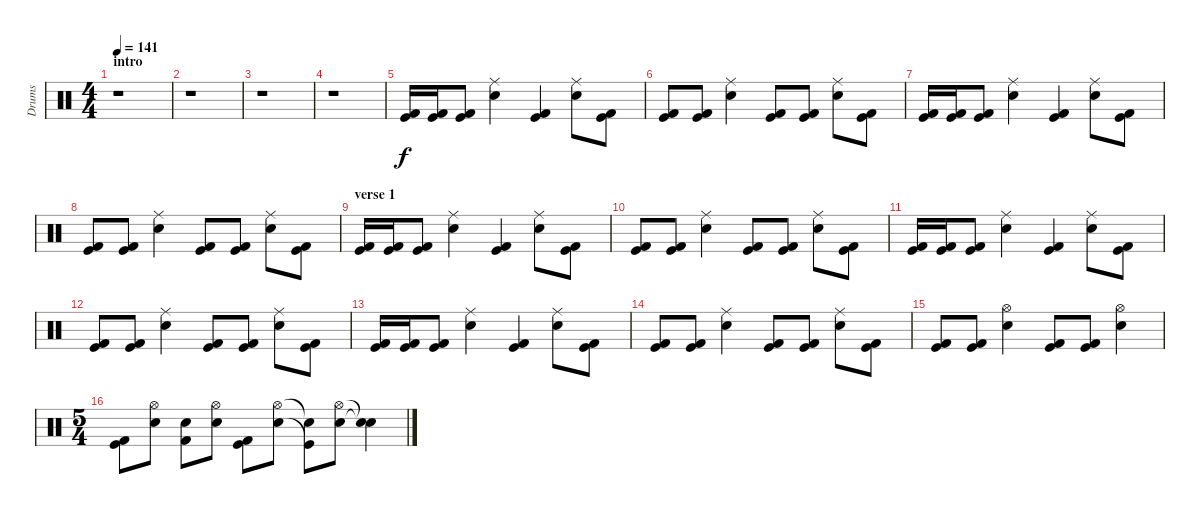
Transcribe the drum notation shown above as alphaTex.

\track ("Drums" "Drums") {instrument percussion}
\staff {score}
\articulation defaults
\ts (4 4)
\section ("" "intro")
\tempo 141
\clef neutral
\ks c
r.1{dy f} |
r.1 |
r.1 |
r.1 |
("Kick (hit)" "Kick (hit) 2").16 ("Kick (hit)" "Kick (hit) 2").16 ("Kick (hit)" "Kick (hit) 2").8 ("Ride (middle)" "Electric Snare (hit)").4 ("Kick (hit)" "Kick (hit) 2").4 ("Ride (middle)" "Electric Snare (hit)").8 ("Kick (hit)" "Kick (hit) 2").8 |
("Kick (hit)" "Kick (hit) 2").8 ("Kick (hit)" "Kick (hit) 2").8 ("Ride (middle)" "Electric Snare (hit)").4 ("Kick (hit)" "Kick (hit) 2").8 ("Kick (hit)" "Kick (hit) 2").8 ("Ride (middle)" "Electric Snare (hit)").8 ("Kick (hit)" "Kick (hit) 2").8 |
("Kick (hit)" "Kick (hit) 2").16 ("Kick (hit)" "Kick (hit) 2").16 ("Kick (hit)" "Kick (hit) 2").8 ("Ride (middle)" "Electric Snare (hit)").4 ("Kick (hit)" "Kick (hit) 2").4 ("Ride (middle)" "Electric Snare (hit)").8 ("Kick (hit)" "Kick (hit) 2").8 |
("Kick (hit)" "Kick (hit) 2").8 ("Kick (hit)" "Kick (hit) 2").8 ("Ride (middle)" "Electric Snare (hit)").4 ("Kick (hit)" "Kick (hit) 2").8 ("Kick (hit)" "Kick (hit) 2").8 ("Ride (middle)" "Electric Snare (hit)").8 ("Kick (hit)" "Kick (hit) 2").8 |
\section ("" "verse 1")
("Kick (hit)" "Kick (hit) 2").16 ("Kick (hit)" "Kick (hit) 2").16 ("Kick (hit)" "Kick (hit) 2").8 ("Ride (middle)" "Electric Snare (hit)").4 ("Kick (hit)" "Kick (hit) 2").4 ("Ride (middle)" "Electric Snare (hit)").8 ("Kick (hit)" "Kick (hit) 2").8 |
("Kick (hit)" "Kick (hit) 2").8 ("Kick (hit)" "Kick (hit) 2").8 ("Ride (middle)" "Electric Snare (hit)").4 ("Kick (hit)" "Kick (hit) 2").8 ("Kick (hit)" "Kick (hit) 2").8 ("Ride (middle)" "Electric Snare (hit)").8 ("Kick (hit)" "Kick (hit) 2").8 |
("Kick (hit)" "Kick (hit) 2").16 ("Kick (hit)" "Kick (hit) 2").16 ("Kick (hit)" "Kick (hit) 2").8 ("Ride (middle)" "Electric Snare (hit)").4 ("Kick (hit)" "Kick (hit) 2").4 ("Ride (middle)" "Electric Snare (hit)").8 ("Kick (hit)" "Kick (hit) 2").8 |
("Kick (hit)" "Kick (hit) 2").8 ("Kick (hit)" "Kick (hit) 2").8 ("Ride (middle)" "Electric Snare (hit)").4 ("Kick (hit)" "Kick (hit) 2").8 ("Kick (hit)" "Kick (hit) 2").8 ("Ride (middle)" "Electric Snare (hit)").8 ("Kick (hit)" "Kick (hit) 2").8 |
("Kick (hit)" "Kick (hit) 2").16 ("Kick (hit)" "Kick (hit) 2").16 ("Kick (hit)" "Kick (hit) 2").8 ("Ride (middle)" "Electric Snare (hit)").4 ("Kick (hit)" "Kick (hit) 2").4 ("Ride (middle)" "Electric Snare (hit)").8 ("Kick (hit)" "Kick (hit) 2").8 |
("Kick (hit)" "Kick (hit) 2").8 ("Kick (hit)" "Kick (hit) 2").8 ("Ride (middle)" "Electric Snare (hit)").4 ("Kick (hit)" "Kick (hit) 2").8 ("Kick (hit)" "Kick (hit) 2").8 ("Ride (middle)" "Electric Snare (hit)").8 ("Kick (hit)" "Kick (hit) 2").8 |
("Kick (hit)" "Kick (hit) 2").8 ("Kick (hit)" "Kick (hit) 2").8 ("Hi-Hat (open)" "Electric Snare (hit)").4 ("Kick (hit)" "Kick (hit) 2").8 ("Kick (hit)" "Kick (hit) 2").8 ("Hi-Hat (open)" "Electric Snare (hit)").4 |
\ts (5 4)
("Kick (hit)" "Kick (hit) 2").8 ("Hi-Hat (open)" "Electric Snare (hit)").8 ("Electric Snare (hit)" "Kick (hit) 2").8 ("Hi-Hat (open)" "Electric Snare (hit)").8 ("Kick (hit)" "Kick (hit) 2").8 ("Hi-Hat (open)" "Electric Snare (hit)").8 ("Snare (hit)"{t} "Kick (hit)"{t}).8 ("Hi-Hat (open)" "Electric Snare (hit)").8 ("Snare (hit)"{t} "Snare (hit)"{t}).4
